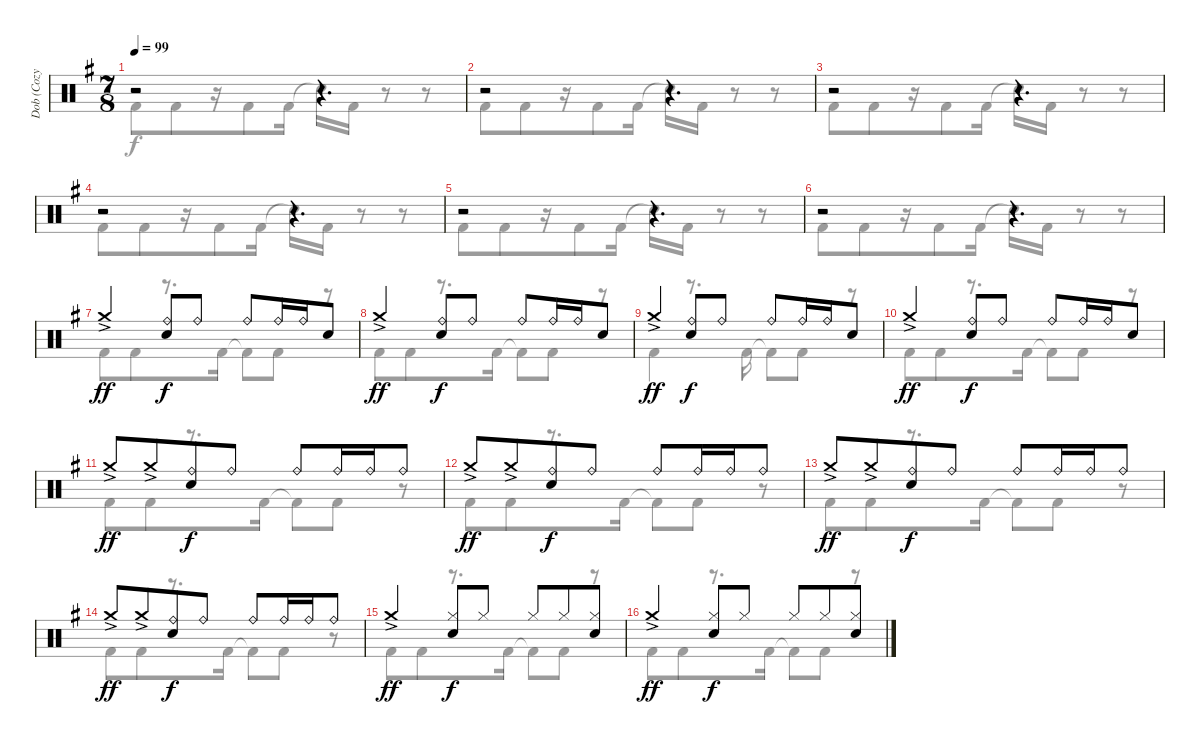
\track ("Dob (Cozy Powell)" "Dob (Cozy ") {instrument percussion}
\staff {score}
\articulation defaults
\voice
\ts (7 8)
\tempo 99
\clef neutral
\ks g
r.2{dy ff volume 16} r.4{d} |
r.2 r.4{d} |
r.2 r.4{d} |
r.2 r.4{d} |
r.2 r.4{d} |
r.2 r.4{d} |
"Crash medium (hit)"{ac}.4{volume 11} ("Ride (bell)" "Electric Snare (hit)").8{dy f beam merge} "Ride (bell)".8{beam split} "Ride (bell)".8{beam merge} "Ride (bell)".16 "Ride (bell)".16 "Electric Snare (hit)".8 |
"Crash medium (hit)"{ac}.4{dy ff} ("Ride (bell)" "Electric Snare (hit)").8{dy f beam merge} "Ride (bell)".8{beam split} "Ride (bell)".8{beam merge} "Ride (bell)".16 "Ride (bell)".16 "Electric Snare (hit)".8 |
"Crash medium (hit)"{ac}.4{dy ff} ("Ride (bell)" "Electric Snare (hit)").8{dy f beam merge} "Ride (bell)".8{beam split} "Ride (bell)".8{beam merge} "Ride (bell)".16 "Ride (bell)".16 "Electric Snare (hit)".8 |
"Crash medium (hit)"{ac}.4{dy ff} ("Ride (bell)" "Electric Snare (hit)").8{dy f beam merge} "Ride (bell)".8{beam split} "Ride (bell)".8{beam merge} "Ride (bell)".16 "Ride (bell)".16 "Electric Snare (hit)".8 |
"Crash medium (hit)"{ac}.8{dy ff} "Crash medium (hit)"{ac}.8 ("Ride (bell)" "Electric Snare (hit)").8{dy f beam merge} "Ride (bell)".8{beam split} "Ride (bell)".8{beam merge} "Ride (bell)".16 "Ride (bell)".16 "Ride (bell)".8 |
"Crash medium (hit)"{ac}.8{dy ff} "Crash medium (hit)"{ac}.8 ("Ride (bell)" "Electric Snare (hit)").8{dy f beam merge} "Ride (bell)".8{beam split} "Ride (bell)".8{beam merge} "Ride (bell)".16 "Ride (bell)".16 "Ride (bell)".8 |
"Crash medium (hit)"{ac}.8{dy ff} "Crash medium (hit)"{ac}.8 ("Ride (bell)" "Electric Snare (hit)").8{dy f beam merge} "Ride (bell)".8{beam split} "Ride (bell)".8{beam merge} "Ride (bell)".16 "Ride (bell)".16 "Ride (bell)".8 |
"Crash medium (hit)"{ac}.8{dy ff} "Crash medium (hit)"{ac}.8 ("Ride (bell)" "Electric Snare (hit)").8{dy f beam merge} "Ride (bell)".8{beam split} "Ride (bell)".8{beam merge} "Ride (bell)".16 "Ride (bell)".16 "Ride (bell)".8 |
"Crash medium (hit)"{ac}.4{dy ff} ("Hi-Hat (closed)" "Electric Snare (hit)").8{dy f beam merge} "Hi-Hat (closed)".8{beam split} "Hi-Hat (closed)".8{beam merge} "Hi-Hat (closed)".8 ("Hi-Hat (closed)" "Electric Snare (hit)").8 |
"Crash medium (hit)"{ac}.4{dy ff} ("Hi-Hat (closed)" "Electric Snare (hit)").8{dy f beam merge} "Hi-Hat (closed)".8{beam split} "Hi-Hat (closed)".8{beam merge} "Hi-Hat (closed)".8 ("Hi-Hat (closed)" "Electric Snare (hit)").8
\voice
\clef neutral
\ottava regular
\simile none
\ks g "Kick (hit) 2".8{dy f beam merge} "Kick (hit) 2".8
r.16 "Kick (hit) 2".8{beam merge} "Kick (hit) 2".16 "Snare (hit)"{t}.16 "Kick (hit) 2".16 r.8 r.8 |
"Kick (hit) 2".8{beam merge} "Kick (hit) 2".8 r.16 "Kick (hit) 2".8{beam merge} "Kick (hit) 2".16 "Snare (hit)"{t}.16 "Kick (hit) 2".16 r.8 r.8 |
"Kick (hit) 2".8{beam merge} "Kick (hit) 2".8 r.16 "Kick (hit) 2".8{beam merge} "Kick (hit) 2".16 "Snare (hit)"{t}.16 "Kick (hit) 2".16 r.8 r.8 |
"Kick (hit) 2".8{beam merge} "Kick (hit) 2".8 r.16 "Kick (hit) 2".8{beam merge} "Kick (hit) 2".16 "Snare (hit)"{t}.16 "Kick (hit) 2".16 r.8 r.8 |
"Kick (hit) 2".8{beam merge} "Kick (hit) 2".8 r.16 "Kick (hit) 2".8{beam merge} "Kick (hit) 2".16 "Snare (hit)"{t}.16 "Kick (hit) 2".16 r.8 r.8 |
"Kick (hit) 2".8{beam merge} "Kick (hit) 2".8 r.16 "Kick (hit) 2".8{beam merge} "Kick (hit) 2".16 "Snare (hit)"{t}.16 "Kick (hit) 2".16 r.8 r.8 |
"Kick (hit) 2".8{beam merge} "Kick (hit) 2".8 r.8{d} "Kick (hit) 2".16 "Kick (hit) 2"{t}.8{beam merge} "Kick (hit) 2".8 r.8 |
"Kick (hit) 2".8{beam merge} "Kick (hit) 2".8 r.8{d} "Kick (hit) 2".16 "Kick (hit) 2"{t}.8{beam merge} "Kick (hit) 2".8 r.8 |
"Kick (hit) 2".4 r.8{d} "Kick (hit) 2".16 "Kick (hit) 2"{t}.8{beam merge} "Kick (hit) 2".8 r.8 |
"Kick (hit) 2".8{beam merge} "Kick (hit) 2".8 r.8{d} "Kick (hit) 2".16 "Kick (hit) 2"{t}.8{beam merge} "Kick (hit) 2".8 r.8 |
"Kick (hit) 2".8{beam merge} "Kick (hit) 2".8 r.8{d} "Kick (hit) 2".16 "Kick (hit) 2"{t}.8{beam merge} "Kick (hit) 2".8 r.8 |
"Kick (hit) 2".8{beam merge} "Kick (hit) 2".8 r.8{d} "Kick (hit) 2".16 "Kick (hit) 2"{t}.8{beam merge} "Kick (hit) 2".8 r.8 |
"Kick (hit) 2".8{beam merge} "Kick (hit) 2".8 r.8{d} "Kick (hit) 2".16 "Kick (hit) 2"{t}.8{beam merge} "Kick (hit) 2".8 r.8 |
"Kick (hit) 2".8{beam merge} "Kick (hit) 2".8 r.8{d} "Kick (hit) 2".16 "Kick (hit) 2"{t}.8{beam merge} "Kick (hit) 2".8 r.8 |
"Kick (hit) 2".8{beam merge} "Kick (hit) 2".8 r.8{d} "Kick (hit) 2".16 "Kick (hit) 2"{t}.8{beam merge} "Kick (hit) 2".8 r.8 |
"Kick (hit) 2".8{beam merge} "Kick (hit) 2".8 r.8{d} "Kick (hit) 2".16 "Kick (hit) 2"{t}.8{beam merge} "Kick (hit) 2".8 r.8
